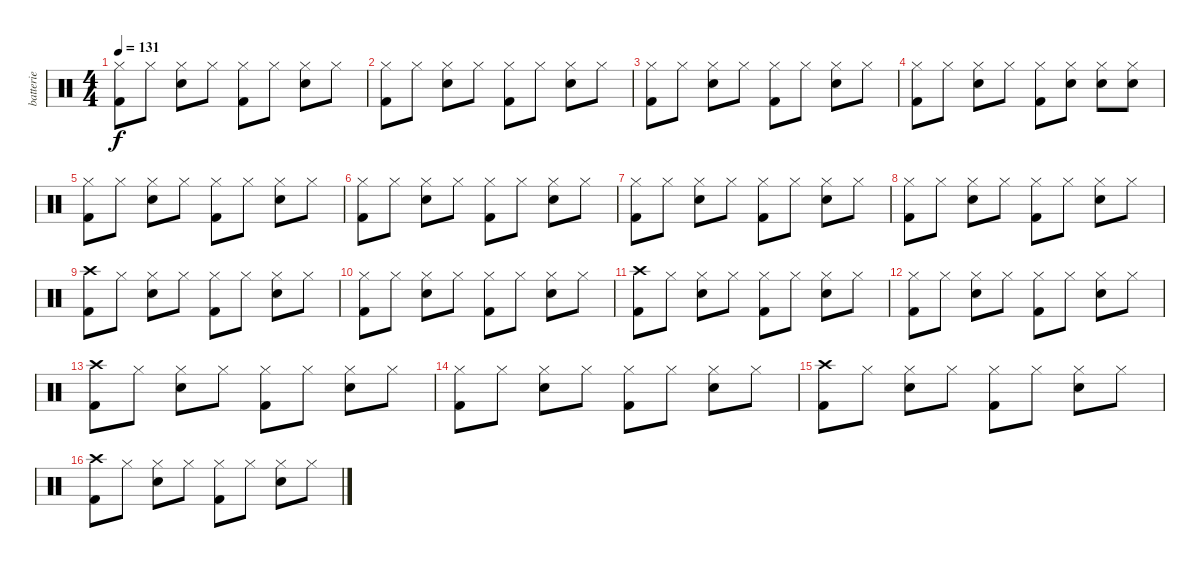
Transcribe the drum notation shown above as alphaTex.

\track ("batterie" "batterie") {instrument percussion}
\staff {score}
\articulation defaults
\ts (4 4)
\tempo 131
\clef neutral
\ks c
("Hi-Hat (closed)" "Kick (hit) 2").8{dy f} "Hi-Hat (closed)".8 ("Hi-Hat (closed)" "Electric Snare (hit)").8 "Hi-Hat (closed)".8 ("Hi-Hat (closed)" "Kick (hit) 2").8 "Hi-Hat (closed)".8 ("Hi-Hat (closed)" "Electric Snare (hit)").8 "Hi-Hat (closed)".8 |
("Hi-Hat (closed)" "Kick (hit) 2").8 "Hi-Hat (closed)".8 ("Hi-Hat (closed)" "Electric Snare (hit)").8 "Hi-Hat (closed)".8 ("Hi-Hat (closed)" "Kick (hit) 2").8 "Hi-Hat (closed)".8 ("Hi-Hat (closed)" "Electric Snare (hit)").8 "Hi-Hat (closed)".8 |
("Hi-Hat (closed)" "Kick (hit) 2").8 "Hi-Hat (closed)".8 ("Hi-Hat (closed)" "Electric Snare (hit)").8 "Hi-Hat (closed)".8 ("Hi-Hat (closed)" "Kick (hit) 2").8 "Hi-Hat (closed)".8 ("Hi-Hat (closed)" "Electric Snare (hit)").8 "Hi-Hat (closed)".8 |
("Hi-Hat (closed)" "Kick (hit) 2").8 "Hi-Hat (closed)".8 ("Hi-Hat (closed)" "Electric Snare (hit)").8 "Hi-Hat (closed)".8 ("Hi-Hat (closed)" "Kick (hit) 2").8 ("Hi-Hat (closed)" "Electric Snare (hit)").8 ("Hi-Hat (closed)" "Electric Snare (hit)").8 ("Hi-Hat (closed)" "Electric Snare (hit)").8 |
("Hi-Hat (closed)" "Kick (hit) 2").8 "Hi-Hat (closed)".8 ("Hi-Hat (closed)" "Electric Snare (hit)").8 "Hi-Hat (closed)".8 ("Hi-Hat (closed)" "Kick (hit) 2").8 "Hi-Hat (closed)".8 ("Hi-Hat (closed)" "Electric Snare (hit)").8 "Hi-Hat (closed)".8 |
("Hi-Hat (closed)" "Kick (hit) 2").8 "Hi-Hat (closed)".8 ("Hi-Hat (closed)" "Electric Snare (hit)").8 "Hi-Hat (closed)".8 ("Hi-Hat (closed)" "Kick (hit) 2").8 "Hi-Hat (closed)".8 ("Hi-Hat (closed)" "Electric Snare (hit)").8 "Hi-Hat (closed)".8 |
("Hi-Hat (closed)" "Kick (hit) 2").8 "Hi-Hat (closed)".8 ("Hi-Hat (closed)" "Electric Snare (hit)").8 "Hi-Hat (closed)".8 ("Hi-Hat (closed)" "Kick (hit) 2").8 "Hi-Hat (closed)".8 ("Hi-Hat (closed)" "Electric Snare (hit)").8 "Hi-Hat (closed)".8 |
("Hi-Hat (closed)" "Kick (hit) 2").8 "Hi-Hat (closed)".8 ("Hi-Hat (closed)" "Electric Snare (hit)").8 "Hi-Hat (closed)".8 ("Hi-Hat (closed)" "Kick (hit) 2").8 "Hi-Hat (closed)".8 ("Hi-Hat (closed)" "Electric Snare (hit)").8 "Hi-Hat (closed)".8 |
("Crash high (hit)" "Kick (hit) 2").8 "Hi-Hat (closed)".8 ("Hi-Hat (closed)" "Electric Snare (hit)").8 "Hi-Hat (closed)".8 ("Hi-Hat (closed)" "Kick (hit) 2").8 "Hi-Hat (closed)".8 ("Hi-Hat (closed)" "Electric Snare (hit)").8 "Hi-Hat (closed)".8 |
("Hi-Hat (closed)" "Kick (hit) 2").8 "Hi-Hat (closed)".8 ("Hi-Hat (closed)" "Electric Snare (hit)").8 "Hi-Hat (closed)".8 ("Hi-Hat (closed)" "Kick (hit) 2").8 "Hi-Hat (closed)".8 ("Hi-Hat (closed)" "Electric Snare (hit)").8 "Hi-Hat (closed)".8 |
("Crash high (hit)" "Kick (hit) 2").8 "Hi-Hat (closed)".8 ("Hi-Hat (closed)" "Electric Snare (hit)").8 "Hi-Hat (closed)".8 ("Hi-Hat (closed)" "Kick (hit) 2").8 "Hi-Hat (closed)".8 ("Hi-Hat (closed)" "Electric Snare (hit)").8 "Hi-Hat (closed)".8 |
("Hi-Hat (closed)" "Kick (hit) 2").8 "Hi-Hat (closed)".8 ("Hi-Hat (closed)" "Electric Snare (hit)").8 "Hi-Hat (closed)".8 ("Hi-Hat (closed)" "Kick (hit) 2").8 "Hi-Hat (closed)".8 ("Hi-Hat (closed)" "Electric Snare (hit)").8 "Hi-Hat (closed)".8 |
("Crash high (hit)" "Kick (hit) 2").8 "Hi-Hat (closed)".8 ("Hi-Hat (closed)" "Electric Snare (hit)").8 "Hi-Hat (closed)".8 ("Hi-Hat (closed)" "Kick (hit) 2").8 "Hi-Hat (closed)".8 ("Hi-Hat (closed)" "Electric Snare (hit)").8 "Hi-Hat (closed)".8 |
("Hi-Hat (closed)" "Kick (hit) 2").8 "Hi-Hat (closed)".8 ("Hi-Hat (closed)" "Electric Snare (hit)").8 "Hi-Hat (closed)".8 ("Hi-Hat (closed)" "Kick (hit) 2").8 "Hi-Hat (closed)".8 ("Hi-Hat (closed)" "Electric Snare (hit)").8 "Hi-Hat (closed)".8 |
("Crash high (hit)" "Kick (hit) 2").8 "Hi-Hat (closed)".8 ("Hi-Hat (closed)" "Electric Snare (hit)").8 "Hi-Hat (closed)".8 ("Hi-Hat (closed)" "Kick (hit) 2").8 "Hi-Hat (closed)".8 ("Hi-Hat (closed)" "Electric Snare (hit)").8 "Hi-Hat (closed)".8 |
("Crash high (hit)" "Kick (hit) 2").8 "Hi-Hat (closed)".8 ("Hi-Hat (closed)" "Electric Snare (hit)").8 "Hi-Hat (closed)".8 ("Hi-Hat (closed)" "Kick (hit) 2").8 "Hi-Hat (closed)".8 ("Hi-Hat (closed)" "Electric Snare (hit)").8 "Hi-Hat (closed)".8
